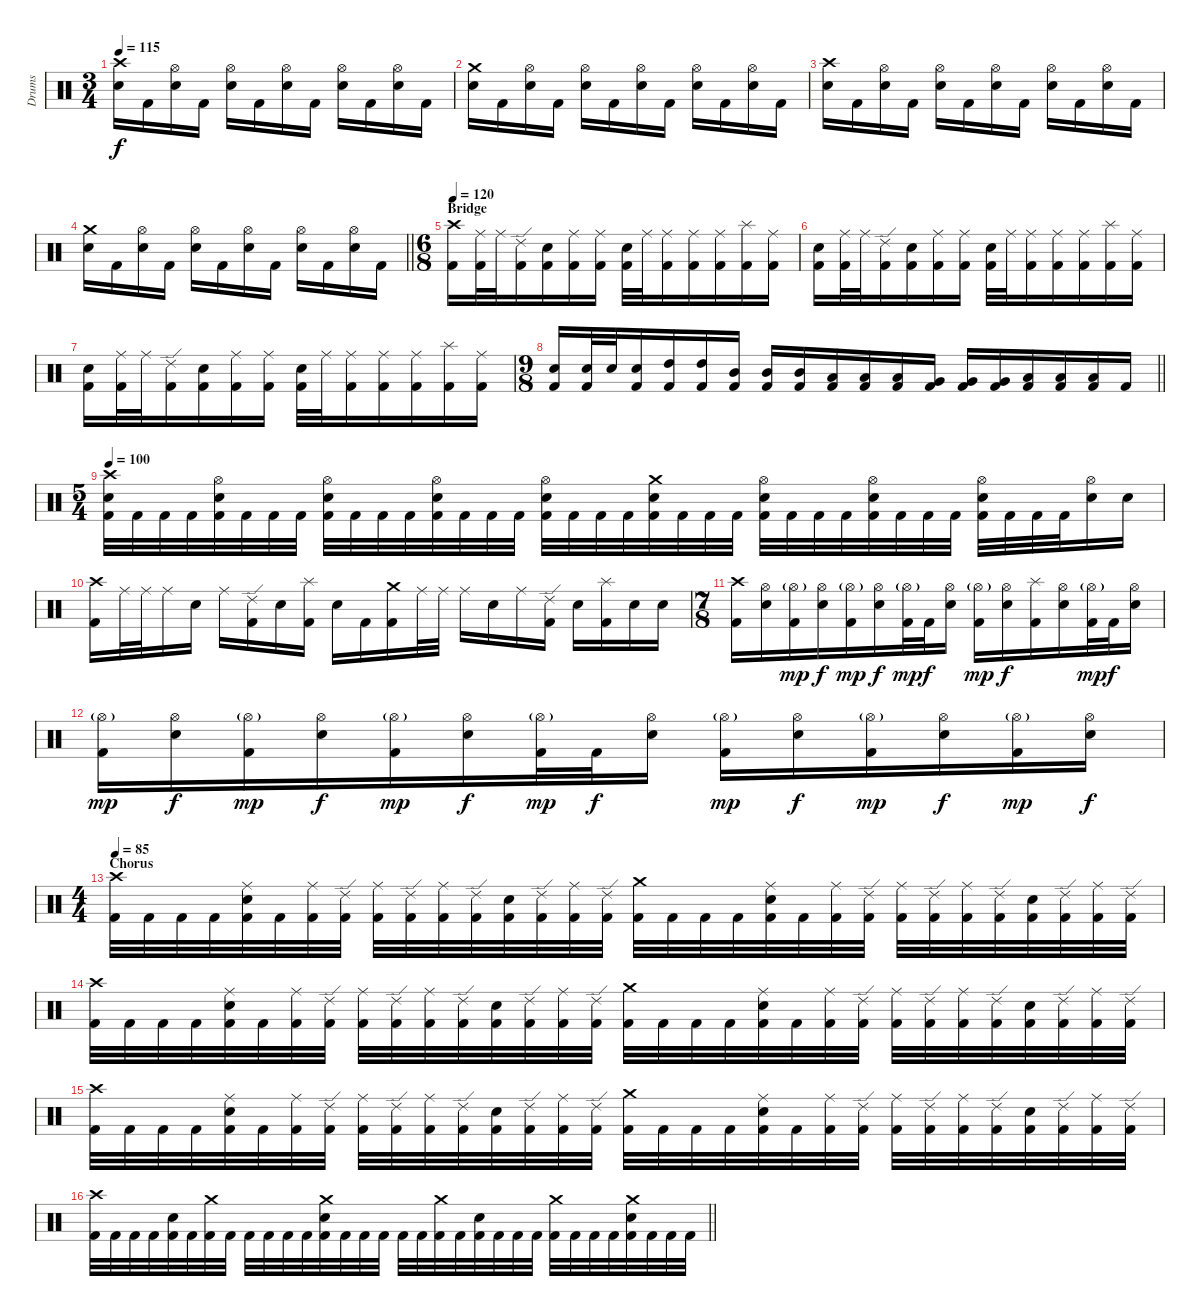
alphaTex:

\track ("Drums" "Drums") {instrument percussion}
\staff {score}
\articulation defaults
\ts (3 4)
\tempo 115
\clef neutral
\ks c
("Crash high (hit)" "Electric Snare (hit)").16{dy f} "Kick (hit) 2".16 ("Hi-Hat (open)" "Electric Snare (hit)").16 "Kick (hit) 2".16 ("Hi-Hat (open)" "Electric Snare (hit)").16 "Kick (hit) 2".16 ("Hi-Hat (open)" "Electric Snare (hit)").16 "Kick (hit) 2".16 ("Hi-Hat (open)" "Electric Snare (hit)").16 "Kick (hit) 2".16 ("Hi-Hat (open)" "Electric Snare (hit)").16 "Kick (hit) 2".16 |
("Crash medium (hit)" "Electric Snare (hit)").16 "Kick (hit) 2".16 ("Hi-Hat (open)" "Electric Snare (hit)").16 "Kick (hit) 2".16 ("Hi-Hat (open)" "Electric Snare (hit)").16 "Kick (hit) 2".16 ("Hi-Hat (open)" "Electric Snare (hit)").16 "Kick (hit) 2".16 ("Hi-Hat (open)" "Electric Snare (hit)").16 "Kick (hit) 2".16 ("Hi-Hat (open)" "Electric Snare (hit)").16 "Kick (hit) 2".16 |
("Crash high (hit)" "Electric Snare (hit)").16 "Kick (hit) 2".16 ("Hi-Hat (open)" "Electric Snare (hit)").16 "Kick (hit) 2".16 ("Hi-Hat (open)" "Electric Snare (hit)").16 "Kick (hit) 2".16 ("Hi-Hat (open)" "Electric Snare (hit)").16 "Kick (hit) 2".16 ("Hi-Hat (open)" "Electric Snare (hit)").16 "Kick (hit) 2".16 ("Hi-Hat (open)" "Electric Snare (hit)").16 "Kick (hit) 2".16 |
\barLineRight lightlight
("Crash medium (hit)" "Electric Snare (hit)").16 "Kick (hit) 2".16 ("Hi-Hat (open)" "Electric Snare (hit)").16 "Kick (hit) 2".16 ("Hi-Hat (open)" "Electric Snare (hit)").16 "Kick (hit) 2".16 ("Hi-Hat (open)" "Electric Snare (hit)").16 "Kick (hit) 2".16 ("Hi-Hat (open)" "Electric Snare (hit)").16 "Kick (hit) 2".16 ("Hi-Hat (open)" "Electric Snare (hit)").16 "Kick (hit) 2".16 |
\ts (6 8)
\section ("" "Bridge")
\tempo 120
("Crash high (hit)" "Kick (hit) 2").16 ("Ride (middle)" "Kick (hit) 2").32 "Ride (middle)".32 ("Ride (edge) 2" "Kick (hit) 2").16 ("Electric Snare (hit)" "Kick (hit) 2").16 ("Ride (middle)" "Kick (hit) 2").16 ("Ride (middle)" "Kick (hit) 2").16 ("Electric Snare (hit)" "Kick (hit) 2").32 "Ride (middle)".32 ("Ride (middle)" "Kick (hit) 2").16 ("Ride (middle)" "Kick (hit) 2").16 ("Ride (middle)" "Kick (hit) 2").16 ("Splash (hit)" "Kick (hit) 2").16 ("Ride (middle)" "Kick (hit) 2").16 |
("Electric Snare (hit)" "Kick (hit) 2").16 ("Ride (middle)" "Kick (hit) 2").32 "Ride (middle)".32 ("Ride (edge) 2" "Kick (hit) 2").16 ("Electric Snare (hit)" "Kick (hit) 2").16 ("Ride (middle)" "Kick (hit) 2").16 ("Ride (middle)" "Kick (hit) 2").16 ("Electric Snare (hit)" "Kick (hit) 2").32 "Ride (middle)".32 ("Ride (middle)" "Kick (hit) 2").16 ("Ride (middle)" "Kick (hit) 2").16 ("Ride (middle)" "Kick (hit) 2").16 ("Splash (hit)" "Kick (hit) 2").16 ("Ride (middle)" "Kick (hit) 2").16 |
("Electric Snare (hit)" "Kick (hit) 2").16 ("Ride (middle)" "Kick (hit) 2").32 "Ride (middle)".32 ("Ride (edge) 2" "Kick (hit) 2").16 ("Electric Snare (hit)" "Kick (hit) 2").16 ("Ride (middle)" "Kick (hit) 2").16 ("Ride (middle)" "Kick (hit) 2").16 ("Electric Snare (hit)" "Kick (hit) 2").32 "Ride (middle)".32 ("Ride (middle)" "Kick (hit) 2").16 ("Ride (middle)" "Kick (hit) 2").16 ("Ride (middle)" "Kick (hit) 2").16 ("Splash (hit)" "Kick (hit) 2").16 ("Ride (middle)" "Kick (hit) 2").16 |
\ts (9 8)
\barLineRight lightlight
("Electric Snare (hit)" "Kick (hit) 2").16 ("Electric Snare (hit)" "Kick (hit) 2").32 "Electric Snare (hit)".32 ("Electric Snare (hit)" "Kick (hit) 2").16 ("High Tom (hit)" "Kick (hit) 2").16 ("High Tom (hit)" "Kick (hit) 2").16 ("Mid Tom (hit)" "Kick (hit) 2").16 ("Mid Tom (hit)" "Kick (hit) 2").16 ("Mid Tom (hit)" "Kick (hit) 2").16 ("Low Tom (hit)" "Kick (hit) 2").16 ("Low Tom (hit)" "Kick (hit) 2").16 ("Low Tom (hit)" "Kick (hit) 2").16 ("Very Low Tom (hit)" "Kick (hit) 2").16 ("Very Low Tom (hit)" "Kick (hit) 2").16 ("Very Low Tom (hit)" "Kick (hit) 2").16 ("Low Floor Tom (hit)" "Kick (hit) 2").16 ("Low Floor Tom (hit)" "Kick (hit) 2").16 ("Low Floor Tom (hit)" "Kick (hit) 2").16 "Kick (hit) 2".16 |
\ts (5 4)
\tempo 100
("Crash high (hit)" "Electric Snare (hit)" "Kick (hit) 2").32 "Kick (hit) 2".32 "Kick (hit) 2".32 "Kick (hit) 2".32 ("Hi-Hat (open)" "Electric Snare (hit)" "Kick (hit) 2").32 "Kick (hit) 2".32 "Kick (hit) 2".32 "Kick (hit) 2".32 ("Hi-Hat (open)" "Electric Snare (hit)" "Kick (hit) 2").32 "Kick (hit) 2".32 "Kick (hit) 2".32 "Kick (hit) 2".32 ("Hi-Hat (open)" "Electric Snare (hit)" "Kick (hit) 2").32 "Kick (hit) 2".32 "Kick (hit) 2".32 "Kick (hit) 2".32 ("Hi-Hat (open)" "Electric Snare (hit)" "Kick (hit) 2").32 "Kick (hit) 2".32 "Kick (hit) 2".32 "Kick (hit) 2".32 ("Crash medium (hit)" "Electric Snare (hit)" "Kick (hit) 2").32 "Kick (hit) 2".32 "Kick (hit) 2".32 "Kick (hit) 2".32 ("Hi-Hat (open)" "Electric Snare (hit)" "Kick (hit) 2").32 "Kick (hit) 2".32 "Kick (hit) 2".32 "Kick (hit) 2".32 ("Hi-Hat (open)" "Electric Snare (hit)" "Kick (hit) 2").32 "Kick (hit) 2".32 "Kick (hit) 2".32 "Kick (hit) 2".32 ("Hi-Hat (open)" "Electric Snare (hit)" "Kick (hit) 2").32 "Kick (hit) 2".32 "Kick (hit) 2".32 "Kick (hit) 2".32 ("Hi-Hat (open)" "Electric Snare (hit)").16 "Electric Snare (hit)".16 |
("Crash high (hit)" "Kick (hit) 2").16 "Ride (middle)".32 "Ride (middle)".32 "Ride (middle)".16 "Electric Snare (hit)".16 "Ride (middle)".16 ("Ride (edge) 2" "Kick (hit) 2").16 "Electric Snare (hit)".16 ("Splash (hit)" "Kick (hit) 2").16 "Electric Snare (hit)".16 "Kick (hit) 2".16 ("Crash medium (hit)" "Kick (hit) 2").16 "Ride (middle)".32 "Ride (middle)".32 "Ride (middle)".16 "Electric Snare (hit)".16 "Ride (middle)".16 ("Ride (edge) 2" "Kick (hit) 2").16 "Electric Snare (hit)".16 ("Splash (hit)" "Kick (hit) 2").16 "Electric Snare (hit)".16 "Electric Snare (hit)".16 |
\ts (7 8)
("Crash high (hit)" "Kick (hit) 2").16 ("Hi-Hat (open)" "Electric Snare (hit)").16 ("Hi-Hat (open)"{g} "Kick (hit) 2").16{dy mp} ("Hi-Hat (open)" "Electric Snare (hit)").16{dy f} ("Hi-Hat (open)"{g} "Kick (hit) 2").16{dy mp} ("Hi-Hat (open)" "Electric Snare (hit)").16{dy f} ("Hi-Hat (open)"{g} "Kick (hit) 2").32{dy mp} "Kick (hit) 2".32{dy f} ("Hi-Hat (open)" "Electric Snare (hit)").16 ("Hi-Hat (open)"{g} "Kick (hit) 2").16{dy mp} ("Hi-Hat (open)" "Electric Snare (hit)").16{dy f} ("Splash (hit)" "Kick (hit) 2").16 ("Hi-Hat (open)" "Electric Snare (hit)").16 ("Hi-Hat (open)"{g} "Kick (hit) 2").32{dy mp} "Kick (hit) 2".32{dy f} ("Hi-Hat (open)" "Electric Snare (hit)").16 |
("Hi-Hat (open)"{g} "Kick (hit) 2").16{dy mp} ("Hi-Hat (open)" "Electric Snare (hit)").16{dy f} ("Hi-Hat (open)"{g} "Kick (hit) 2").16{dy mp} ("Hi-Hat (open)" "Electric Snare (hit)").16{dy f} ("Hi-Hat (open)"{g} "Kick (hit) 2").16{dy mp} ("Hi-Hat (open)" "Electric Snare (hit)").16{dy f} ("Hi-Hat (open)"{g} "Kick (hit) 2").32{dy mp} "Kick (hit) 2".32{dy f} ("Hi-Hat (open)" "Electric Snare (hit)").16 ("Hi-Hat (open)"{g} "Kick (hit) 2").16{dy mp} ("Hi-Hat (open)" "Electric Snare (hit)").16{dy f} ("Hi-Hat (open)"{g} "Kick (hit) 2").16{dy mp} ("Hi-Hat (open)" "Electric Snare (hit)").16{dy f} ("Hi-Hat (open)"{g} "Kick (hit) 2").16{dy mp} ("Hi-Hat (open)" "Electric Snare (hit)").16{dy f} |
\ts (4 4)
\section ("" "Chorus")
\tempo 85
("Crash high (hit)" "Kick (hit) 2").32 "Kick (hit) 2".32 "Kick (hit) 2".32 "Kick (hit) 2".32 ("Ride (middle)" "Electric Snare (hit)" "Kick (hit) 2").32 "Kick (hit) 2".32 ("Ride (middle)" "Kick (hit) 2").32 ("Ride (edge) 2" "Kick (hit) 2").32 ("Ride (middle)" "Kick (hit) 2").32 ("Ride (edge) 2" "Kick (hit) 2").32 ("Ride (middle)" "Kick (hit) 2").32 ("Ride (edge) 2" "Kick (hit) 2").32 ("Electric Snare (hit)" "Kick (hit) 2").32 ("Ride (edge) 2" "Kick (hit) 2").32 ("Ride (middle)" "Kick (hit) 2").32 ("Ride (edge) 2" "Kick (hit) 2").32 ("Crash medium (hit)" "Kick (hit) 2").32 "Kick (hit) 2".32 "Kick (hit) 2".32 "Kick (hit) 2".32 ("Ride (middle)" "Electric Snare (hit)" "Kick (hit) 2").32 "Kick (hit) 2".32 ("Ride (middle)" "Kick (hit) 2").32 ("Ride (edge) 2" "Kick (hit) 2").32 ("Ride (middle)" "Kick (hit) 2").32 ("Ride (edge) 2" "Kick (hit) 2").32 ("Ride (middle)" "Kick (hit) 2").32 ("Ride (edge) 2" "Kick (hit) 2").32 ("Electric Snare (hit)" "Kick (hit) 2").32 ("Ride (edge) 2" "Kick (hit) 2").32 ("Ride (middle)" "Kick (hit) 2").32 ("Ride (edge) 2" "Kick (hit) 2").32 |
("Crash high (hit)" "Kick (hit) 2").32 "Kick (hit) 2".32 "Kick (hit) 2".32 "Kick (hit) 2".32 ("Ride (middle)" "Electric Snare (hit)" "Kick (hit) 2").32 "Kick (hit) 2".32 ("Ride (middle)" "Kick (hit) 2").32 ("Ride (edge) 2" "Kick (hit) 2").32 ("Ride (middle)" "Kick (hit) 2").32 ("Ride (edge) 2" "Kick (hit) 2").32 ("Ride (middle)" "Kick (hit) 2").32 ("Ride (edge) 2" "Kick (hit) 2").32 ("Electric Snare (hit)" "Kick (hit) 2").32 ("Ride (edge) 2" "Kick (hit) 2").32 ("Ride (middle)" "Kick (hit) 2").32 ("Ride (edge) 2" "Kick (hit) 2").32 ("Crash medium (hit)" "Kick (hit) 2").32 "Kick (hit) 2".32 "Kick (hit) 2".32 "Kick (hit) 2".32 ("Ride (middle)" "Electric Snare (hit)" "Kick (hit) 2").32 "Kick (hit) 2".32 ("Ride (middle)" "Kick (hit) 2").32 ("Ride (edge) 2" "Kick (hit) 2").32 ("Ride (middle)" "Kick (hit) 2").32 ("Ride (edge) 2" "Kick (hit) 2").32 ("Ride (middle)" "Kick (hit) 2").32 ("Ride (edge) 2" "Kick (hit) 2").32 ("Electric Snare (hit)" "Kick (hit) 2").32 ("Ride (edge) 2" "Kick (hit) 2").32 ("Ride (middle)" "Kick (hit) 2").32 ("Ride (edge) 2" "Kick (hit) 2").32 |
("Crash high (hit)" "Kick (hit) 2").32 "Kick (hit) 2".32 "Kick (hit) 2".32 "Kick (hit) 2".32 ("Ride (middle)" "Electric Snare (hit)" "Kick (hit) 2").32 "Kick (hit) 2".32 ("Ride (middle)" "Kick (hit) 2").32 ("Ride (edge) 2" "Kick (hit) 2").32 ("Ride (middle)" "Kick (hit) 2").32 ("Ride (edge) 2" "Kick (hit) 2").32 ("Ride (middle)" "Kick (hit) 2").32 ("Ride (edge) 2" "Kick (hit) 2").32 ("Electric Snare (hit)" "Kick (hit) 2").32 ("Ride (edge) 2" "Kick (hit) 2").32 ("Ride (middle)" "Kick (hit) 2").32 ("Ride (edge) 2" "Kick (hit) 2").32 ("Crash medium (hit)" "Kick (hit) 2").32 "Kick (hit) 2".32 "Kick (hit) 2".32 "Kick (hit) 2".32 ("Ride (middle)" "Electric Snare (hit)" "Kick (hit) 2").32 "Kick (hit) 2".32 ("Ride (middle)" "Kick (hit) 2").32 ("Ride (edge) 2" "Kick (hit) 2").32 ("Ride (middle)" "Kick (hit) 2").32 ("Ride (edge) 2" "Kick (hit) 2").32 ("Ride (middle)" "Kick (hit) 2").32 ("Ride (edge) 2" "Kick (hit) 2").32 ("Electric Snare (hit)" "Kick (hit) 2").32 ("Ride (edge) 2" "Kick (hit) 2").32 ("Ride (middle)" "Kick (hit) 2").32 ("Ride (edge) 2" "Kick (hit) 2").32 |
\barLineRight lightlight
("Crash high (hit)" "Kick (hit) 2").32 "Kick (hit) 2".32 "Kick (hit) 2".32 "Kick (hit) 2".32 ("Electric Snare (hit)" "Kick (hit) 2").32 "Kick (hit) 2".32 ("Crash medium (hit)" "Kick (hit) 2").32 "Kick (hit) 2".32 "Kick (hit) 2".32 "Kick (hit) 2".32 "Kick (hit) 2".32 "Kick (hit) 2".32 ("Crash medium (hit)" "Electric Snare (hit)" "Kick (hit) 2").32 "Kick (hit) 2".32 "Kick (hit) 2".32 "Kick (hit) 2".32 "Kick (hit) 2".32 "Kick (hit) 2".32 ("Crash medium (hit)" "Kick (hit) 2").32 "Kick (hit) 2".32 ("Electric Snare (hit)" "Kick (hit) 2").32 "Kick (hit) 2".32 "Kick (hit) 2".32 "Kick (hit) 2".32 ("Crash medium (hit)" "Kick (hit) 2").32 "Kick (hit) 2".32 "Kick (hit) 2".32 "Kick (hit) 2".32 ("Crash medium (hit)" "Electric Snare (hit)" "Kick (hit) 2").32 "Kick (hit) 2".32 "Kick (hit) 2".32 "Kick (hit) 2".32
